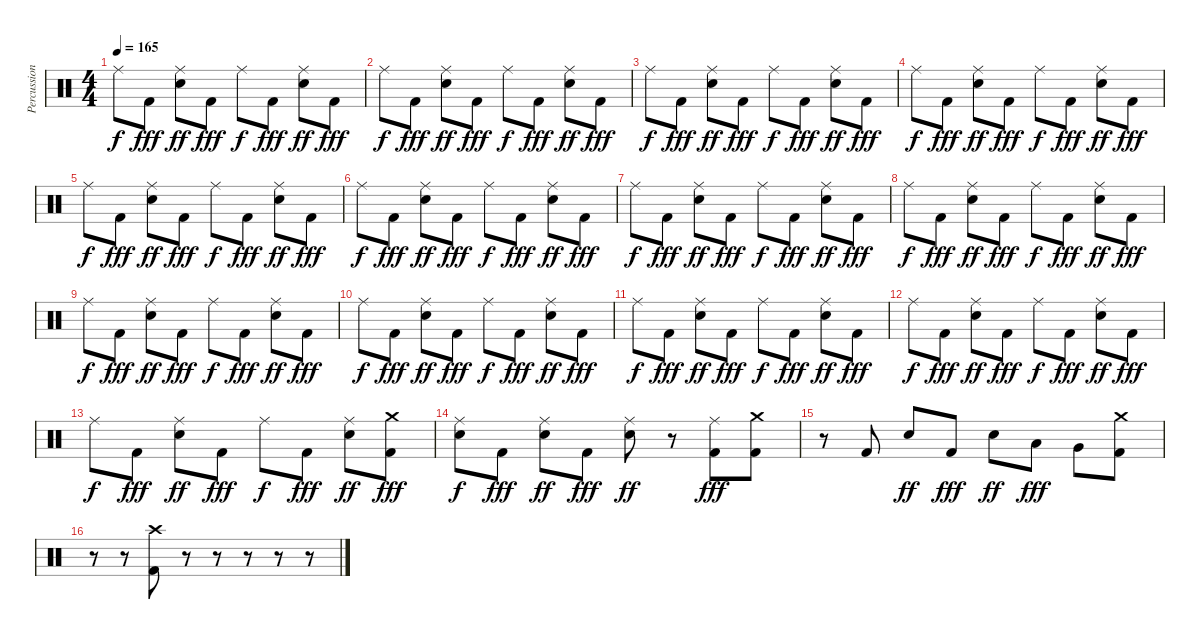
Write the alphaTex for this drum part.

\track ("Percussion" "Percussion") {instrument percussion}
\staff {score}
\articulation defaults
\ts (4 4)
\tempo 165
\clef neutral
\ks c "Ride (middle)".8{dy f} "Kick (hit) 2".8{dy fff}
("Ride (middle)" "Electric Snare (hit)").8{dy ff} "Kick (hit) 2".8{dy fff} "Ride (middle)".8{dy f} "Kick (hit) 2".8{dy fff} ("Ride (middle)" "Electric Snare (hit)").8{dy ff} "Kick (hit) 2".8{dy fff} |
"Ride (middle)".8{dy f} "Kick (hit) 2".8{dy fff} ("Ride (middle)" "Electric Snare (hit)").8{dy ff} "Kick (hit) 2".8{dy fff} "Ride (middle)".8{dy f} "Kick (hit) 2".8{dy fff} ("Ride (middle)" "Electric Snare (hit)").8{dy ff} "Kick (hit) 2".8{dy fff} |
"Ride (middle)".8{dy f} "Kick (hit) 2".8{dy fff} ("Ride (middle)" "Electric Snare (hit)").8{dy ff} "Kick (hit) 2".8{dy fff} "Ride (middle)".8{dy f} "Kick (hit) 2".8{dy fff} ("Ride (middle)" "Electric Snare (hit)").8{dy ff} "Kick (hit) 2".8{dy fff} |
"Ride (middle)".8{dy f} "Kick (hit) 2".8{dy fff} ("Ride (middle)" "Electric Snare (hit)").8{dy ff} "Kick (hit) 2".8{dy fff} "Ride (middle)".8{dy f} "Kick (hit) 2".8{dy fff} ("Ride (middle)" "Electric Snare (hit)").8{dy ff} "Kick (hit) 2".8{dy fff} |
"Ride (middle)".8{dy f} "Kick (hit) 2".8{dy fff} ("Ride (middle)" "Electric Snare (hit)").8{dy ff} "Kick (hit) 2".8{dy fff} "Ride (middle)".8{dy f} "Kick (hit) 2".8{dy fff} ("Ride (middle)" "Electric Snare (hit)").8{dy ff} "Kick (hit) 2".8{dy fff} |
"Ride (middle)".8{dy f} "Kick (hit) 2".8{dy fff} ("Ride (middle)" "Electric Snare (hit)").8{dy ff} "Kick (hit) 2".8{dy fff} "Ride (middle)".8{dy f} "Kick (hit) 2".8{dy fff} ("Ride (middle)" "Electric Snare (hit)").8{dy ff} "Kick (hit) 2".8{dy fff} |
"Ride (middle)".8{dy f} "Kick (hit) 2".8{dy fff} ("Ride (middle)" "Electric Snare (hit)").8{dy ff} "Kick (hit) 2".8{dy fff} "Ride (middle)".8{dy f} "Kick (hit) 2".8{dy fff} ("Ride (middle)" "Electric Snare (hit)").8{dy ff} "Kick (hit) 2".8{dy fff} |
"Ride (middle)".8{dy f} "Kick (hit) 2".8{dy fff} ("Ride (middle)" "Electric Snare (hit)").8{dy ff} "Kick (hit) 2".8{dy fff} "Ride (middle)".8{dy f} "Kick (hit) 2".8{dy fff} ("Ride (middle)" "Electric Snare (hit)").8{dy ff} "Kick (hit) 2".8{dy fff} |
"Ride (middle)".8{dy f} "Kick (hit) 2".8{dy fff} ("Ride (middle)" "Electric Snare (hit)").8{dy ff} "Kick (hit) 2".8{dy fff} "Ride (middle)".8{dy f} "Kick (hit) 2".8{dy fff} ("Ride (middle)" "Electric Snare (hit)").8{dy ff} "Kick (hit) 2".8{dy fff} |
"Ride (middle)".8{dy f} "Kick (hit) 2".8{dy fff} ("Ride (middle)" "Electric Snare (hit)").8{dy ff} "Kick (hit) 2".8{dy fff} "Ride (middle)".8{dy f} "Kick (hit) 2".8{dy fff} ("Ride (middle)" "Electric Snare (hit)").8{dy ff} "Kick (hit) 2".8{dy fff} |
"Ride (middle)".8{dy f} "Kick (hit) 2".8{dy fff} ("Ride (middle)" "Electric Snare (hit)").8{dy ff} "Kick (hit) 2".8{dy fff} "Ride (middle)".8{dy f} "Kick (hit) 2".8{dy fff} ("Ride (middle)" "Electric Snare (hit)").8{dy ff} "Kick (hit) 2".8{dy fff} |
"Ride (middle)".8{dy f} "Kick (hit) 2".8{dy fff} ("Ride (middle)" "Electric Snare (hit)").8{dy ff} "Kick (hit) 2".8{dy fff} "Ride (middle)".8{dy f} "Kick (hit) 2".8{dy fff} ("Ride (middle)" "Electric Snare (hit)").8{dy ff} "Kick (hit) 2".8{dy fff} |
"Ride (middle)".8{dy f} "Kick (hit) 2".8{dy fff} ("Ride (middle)" "Electric Snare (hit)").8{dy ff} "Kick (hit) 2".8{dy fff} "Ride (middle)".8{dy f} "Kick (hit) 2".8{dy fff} ("Ride (middle)" "Electric Snare (hit)").8{dy ff} ("Crash medium (hit)" "Kick (hit) 2").8{dy fff} |
("Ride (middle)" "Snare (hit)").8{dy f} "Kick (hit) 2".8{dy fff} ("Ride (middle)" "Electric Snare (hit)").8{dy ff} "Kick (hit) 2".8{dy fff} ("Ride (middle)" "Electric Snare (hit)").8{dy ff} r.8 ("Ride (middle)" "Kick (hit) 2").8{dy fff} ("Crash medium (hit)" "Kick (hit) 2").8 |
r.8 "Kick (hit) 2".8 "Electric Snare (hit)".8{dy ff} "Kick (hit) 2".8{dy fff} "Electric Snare (hit)".8{dy ff} "Low Tom (hit)".8{dy fff} "Very Low Tom (hit)".8 ("Crash medium (hit)" "Kick (hit) 2").8 |
r.8 r.8 ("Crash high (hit)" "Kick (hit) 2").8 r.8 r.8 r.8 r.8 r.8
